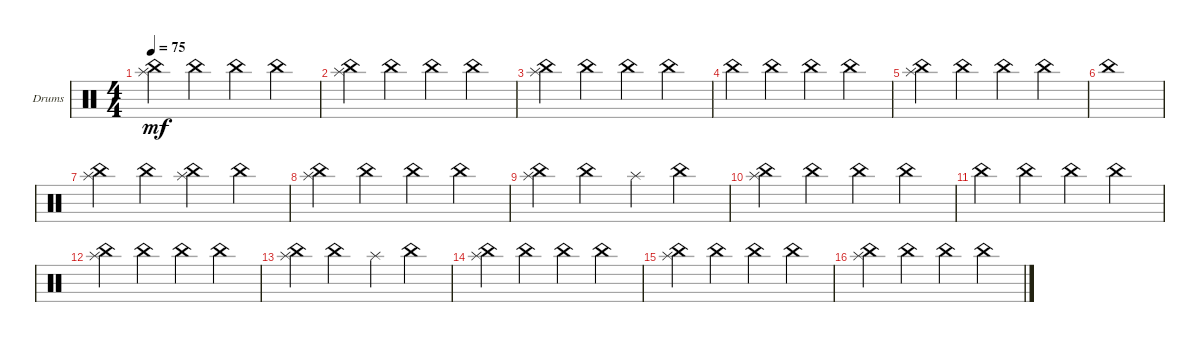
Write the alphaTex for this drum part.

\defaultSystemsLayout 4
\bracketExtendMode groupsimilarinstruments
\firstSystemTrackNameOrientation horizontal
\otherSystemsTrackNameOrientation horizontal
\track ("Drumkit2" "Drums") {instrument percussion}
\staff {score}
\articulation defaults
\ts (4 4)
\tempo 75
\clef neutral
\scale
0.333333
\ks c
("Splash (hit)" "China (hit)").4{dy mf} "China (hit)".4 "China (hit)".4 "China (hit)".4 |
\scale
0.333333 ("Splash (hit)" "China (hit)").4 "China (hit)".4 "China (hit)".4 "China (hit)".4 |
\scale
0.333333 ("Splash (hit)" "China (hit)").4 "China (hit)".4 "China (hit)".4 "China (hit)".4 |
\scale
0.333333 "China (hit)".4 "China (hit)".4 "China (hit)".4 "China (hit)".4 |
\scale
0.333333 ("Splash (hit)" "China (hit)").4 "China (hit)".4 "China (hit)".4 "China (hit)".4 |
\scale
0.333333 "China (hit)".1 |
\scale
0.333333 ("Splash (hit)" "China (hit)").4 "China (hit)".4 ("Splash (hit)" "China (hit)").4 "China (hit)".4 |
\scale
0.333333 ("Splash (hit)" "China (hit)").4 "China (hit)".4 "China (hit)".4 "China (hit)".4 |
\scale
0.333333 ("Splash (hit)" "China (hit)").4 "China (hit)".4 "Splash (hit)".4 "China (hit)".4 |
\scale
0.333333 ("Splash (hit)" "China (hit)").4 "China (hit)".4 "China (hit)".4 "China (hit)".4 |
\scale
0.333333 "China (hit)".4 "China (hit)".4 "China (hit)".4 "China (hit)".4 |
\scale
0.333333 ("Splash (hit)" "China (hit)").4 "China (hit)".4 "China (hit)".4 "China (hit)".4 |
\scale
0.333333 ("Splash (hit)" "China (hit)").4 "China (hit)".4 "Splash (hit)".4 "China (hit)".4 |
\scale
0.333333 ("Splash (hit)" "China (hit)").4 "China (hit)".4 "China (hit)".4 "China (hit)".4 |
\scale
0.333333 ("Splash (hit)" "China (hit)").4 "China (hit)".4 "China (hit)".4 "China (hit)".4 |
\scale
0.333333 ("Splash (hit)" "China (hit)").4 "China (hit)".4 "China (hit)".4 "China (hit)".4
